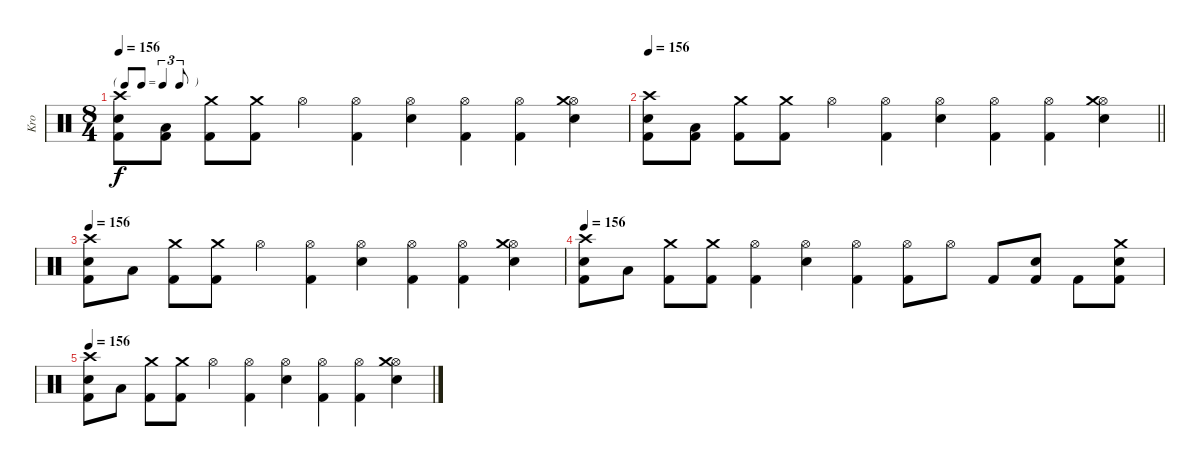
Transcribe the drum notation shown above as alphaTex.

\track ("Kro" "Kro") {instrument percussion}
\staff {score}
\articulation defaults
\ts (8 4)
\tf triplet8th
\tempo 156
\clef neutral
\ks c
("Crash high (hit)" "Kick (hit) 2" "Electric Snare (hit)").8{dy f} ("Low Tom (hit)" "Kick (hit) 2").8 ("Crash medium (hit)" "Kick (hit) 2").8 ("Crash medium (hit)" "Kick (hit) 2").8 "Hi-Hat (open)".4 ("Hi-Hat (open)" "Kick (hit) 2").4 ("Hi-Hat (open)" "Electric Snare (hit)").4 ("Hi-Hat (open)" "Kick (hit) 2").4 ("Hi-Hat (open)" "Kick (hit) 2").4 ("Hi-Hat (open)" "Crash medium (hit)" "Electric Snare (hit)").4 |
\tempo 156
\barLineRight lightlight
("Crash high (hit)" "Kick (hit) 2" "Electric Snare (hit)").8 ("Low Tom (hit)" "Kick (hit) 2").8 ("Crash medium (hit)" "Kick (hit) 2").8 ("Crash medium (hit)" "Kick (hit) 2").8 "Hi-Hat (open)".4 ("Hi-Hat (open)" "Kick (hit) 2").4 ("Hi-Hat (open)" "Electric Snare (hit)").4 ("Hi-Hat (open)" "Kick (hit) 2").4 ("Hi-Hat (open)" "Kick (hit) 2").4 ("Hi-Hat (open)" "Crash medium (hit)" "Electric Snare (hit)").4 |
\tempo 156
("Crash high (hit)" "Kick (hit) 2" "Electric Snare (hit)").8 "Low Tom (hit)".8 ("Crash medium (hit)" "Kick (hit) 2").8 ("Crash medium (hit)" "Kick (hit) 2").8 "Hi-Hat (open)".4 ("Hi-Hat (open)" "Kick (hit) 2").4 ("Hi-Hat (open)" "Electric Snare (hit)").4 ("Hi-Hat (open)" "Kick (hit) 2").4 ("Hi-Hat (open)" "Kick (hit) 2").4 ("Hi-Hat (open)" "Crash medium (hit)" "Electric Snare (hit)").4 |
\tempo 156
("Crash high (hit)" "Kick (hit) 2" "Electric Snare (hit)").8 "Low Tom (hit)".8 ("Crash medium (hit)" "Kick (hit) 2").8 ("Crash medium (hit)" "Kick (hit) 2").8 ("Hi-Hat (open)" "Kick (hit) 2").4 ("Hi-Hat (open)" "Electric Snare (hit)").4 ("Hi-Hat (open)" "Kick (hit) 2").4 ("Hi-Hat (open)" "Kick (hit) 2").8 "Hi-Hat (open)".8 "Kick (hit) 2".8 ("Electric Snare (hit)" "Kick (hit) 2").8 "Kick (hit) 2".8 ("Crash medium (hit)" "Electric Snare (hit)" "Kick (hit) 2").8 |
\tempo 156
("Crash high (hit)" "Kick (hit) 2" "Electric Snare (hit)").8 "Low Tom (hit)".8 ("Crash medium (hit)" "Kick (hit) 2").8 ("Crash medium (hit)" "Kick (hit) 2").8 "Hi-Hat (open)".4 ("Hi-Hat (open)" "Kick (hit) 2").4 ("Hi-Hat (open)" "Electric Snare (hit)").4 ("Hi-Hat (open)" "Kick (hit) 2").4 ("Hi-Hat (open)" "Kick (hit) 2").4 ("Hi-Hat (open)" "Crash medium (hit)" "Electric Snare (hit)").4
